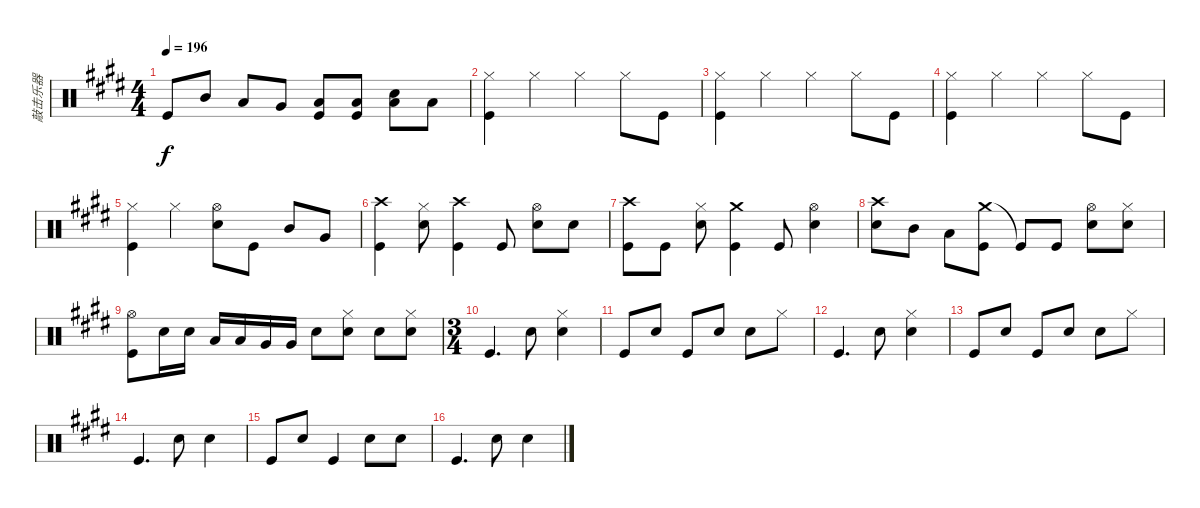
\track ("敲击乐器" "敲击乐器") {instrument percussion}
\staff {score}
\articulation defaults
\ts (4 4)
\tempo 196
\clef neutral
\ks e "Kick (hit)".8{dy f} "Mid Tom (hit)".8 "Low Tom (hit)".8 "Very Low Tom (hit)".8
("Low Floor Tom (hit)" "Kick (hit)").8 ("Low Floor Tom (hit)" "Kick (hit)").8 ("Low Floor Tom (hit)" "Snare (hit) 2").8 "Low Floor Tom (hit)".8 |
\ks c#minor
("Hi-Hat (closed)" "Kick (hit)").4 "Hi-Hat (closed)".4 "Hi-Hat (closed)".4 "Hi-Hat (closed)".8 "Kick (hit)".8 |
("Hi-Hat (closed)" "Kick (hit)").4 "Hi-Hat (closed)".4 "Hi-Hat (closed)".4 "Hi-Hat (closed)".8 "Kick (hit)".8 |
("Hi-Hat (closed)" "Kick (hit)").4 "Hi-Hat (closed)".4 "Hi-Hat (closed)".4 "Hi-Hat (closed)".8 "Kick (hit)".8 |
("Hi-Hat (closed)" "Kick (hit)").4 "Hi-Hat (closed)".4 ("Hi-Hat (open)" "Snare (hit) 2").8 "Kick (hit)".8 "Mid Tom (hit)".8 "Very Low Tom (hit)".8 |
("Crash high (hit)" "Kick (hit)").4 ("Hi-Hat (closed)" "Snare (hit) 2").8 ("Crash high (hit)" "Kick (hit)").4 "Kick (hit)".8 ("Hi-Hat (open)" "Snare (hit) 2").8 "Snare (hit) 2".8 |
("Crash high (hit)" "Kick (hit)").8 "Kick (hit)".8 ("Hi-Hat (closed)" "Snare (hit) 2").8 ("Crash medium (hit)" "Kick (hit)").4 "Kick (hit)".8 ("Hi-Hat (open)" "Snare (hit) 2").4 |
("Crash high (hit)" "Snare (hit) 2").8 "Mid Tom (hit)".8 "Low Tom (hit)".8 ("Crash medium (hit)" "Kick (hit)").8 "Kick (hit)"{t}.8 "Kick (hit)".8 ("Hi-Hat (open)" "Snare (hit) 2").8 ("Hi-Hat (closed)" "Snare (hit) 2").8 |
("Hi-Hat (open)" "Kick (hit)").8 "Snare (hit) 2".16 "Snare (hit) 2".16 "Low Tom (hit)".16 "Low Tom (hit)".16 "Very Low Tom (hit)".16 "Very Low Tom (hit)".16 "Snare (hit) 2".8 ("Hi-Hat (closed)" "Snare (hit) 2").8 "Snare (hit) 2".8 ("Hi-Hat (closed)" "Snare (hit) 2").8 |
\ts (3 4)
\ks e "Kick (hit)".4{d} "Snare (hit) 2".8
("Hi-Hat (closed)" "Snare (hit) 2").4 |
\ks c#minor "Kick (hit)".8 "Snare (hit) 2".8 "Kick (hit)".8 "Snare (hit) 2".8 "Snare (hit) 2".8 "Hi-Hat (closed)".8
|
\ks e "Kick (hit)".4{d} "Snare (hit) 2".8
("Hi-Hat (closed)" "Snare (hit) 2").4 |
\ks c#minor "Kick (hit)".8 "Snare (hit) 2".8 "Kick (hit)".8 "Snare (hit) 2".8 "Snare (hit) 2".8 "Hi-Hat (closed)".8
|
\ks e "Kick (hit)".4{d} "Snare (hit) 2".8 "Snare (hit) 2".4
|
\ks c#minor "Kick (hit)".8 "Snare (hit) 2".8 "Kick (hit)".4 "Snare (hit) 2".8 "Snare (hit) 2".8
|
\ks e "Kick (hit)".4{d} "Snare (hit) 2".8 "Snare (hit) 2".4
